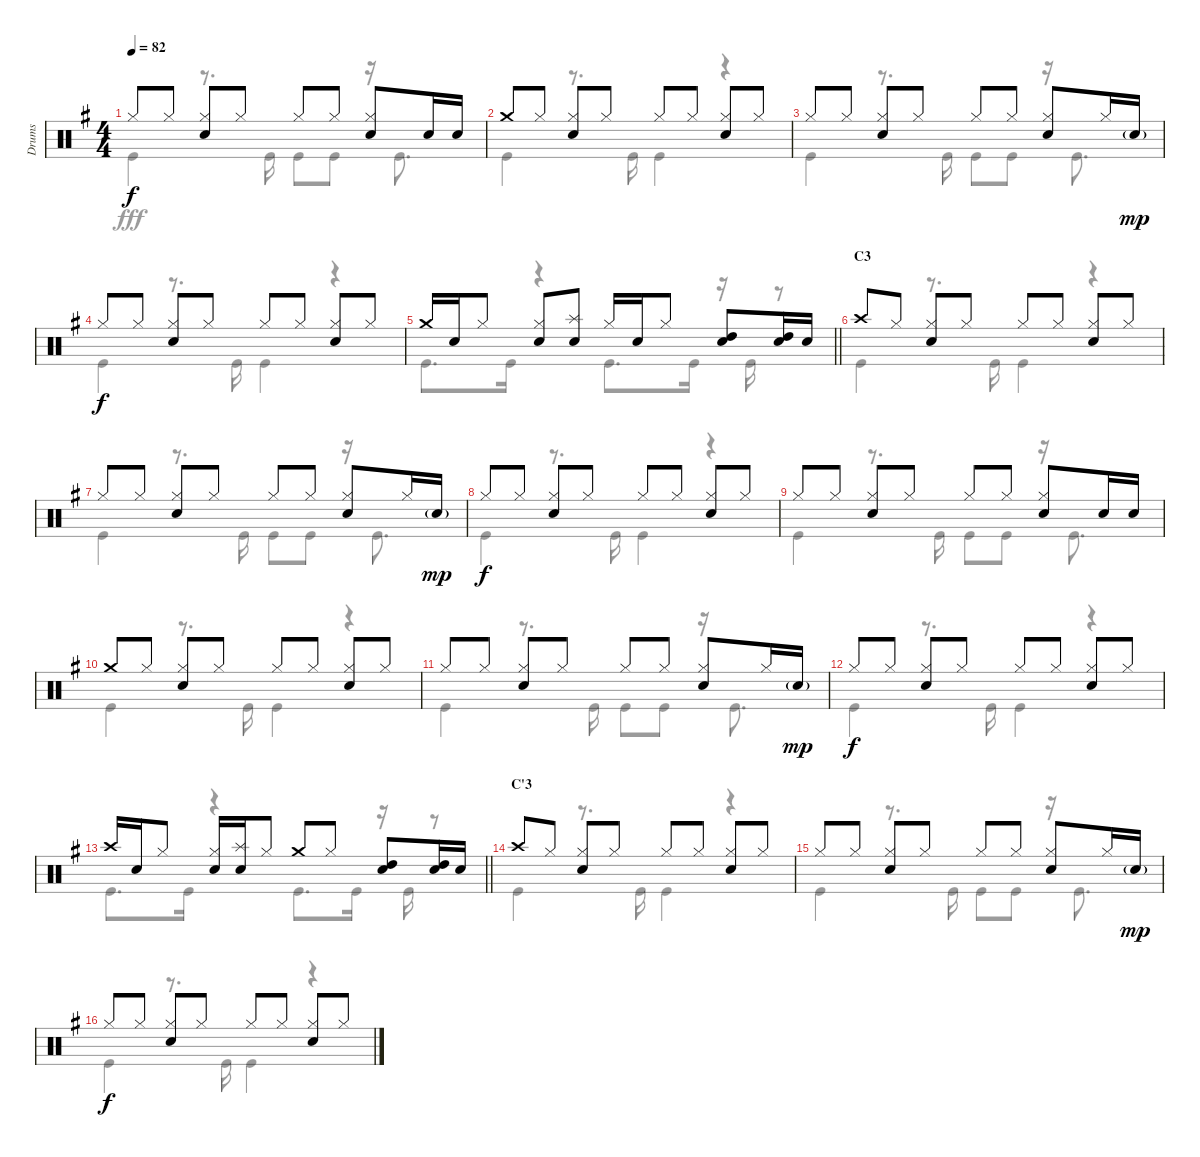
\track ("Drums" "Drums") {instrument percussion}
\staff {score}
\articulation defaults
\voice
\ts (4 4)
\tempo 82
\clef neutral
\ks g "Hi-Hat (closed)".8{dy f} "Hi-Hat (closed)".8
("Hi-Hat (closed)" "Snare (hit) 2").8 "Hi-Hat (closed)".8 "Hi-Hat (closed)".8 "Hi-Hat (closed)".8 ("Hi-Hat (closed)" "Snare (hit) 2").8 "Snare (hit) 2".16 "Snare (hit) 2".16 |
"Crash medium (hit)".8 "Hi-Hat (closed)".8 ("Hi-Hat (closed)" "Snare (hit) 2").8 "Hi-Hat (closed)".8 "Hi-Hat (closed)".8 "Hi-Hat (closed)".8 ("Hi-Hat (closed)" "Snare (hit) 2").8 "Hi-Hat (closed)".8 |
"Hi-Hat (closed)".8 "Hi-Hat (closed)".8 ("Hi-Hat (closed)" "Snare (hit) 2").8 "Hi-Hat (closed)".8 "Hi-Hat (closed)".8 "Hi-Hat (closed)".8 ("Hi-Hat (closed)" "Snare (hit) 2").8 "Hi-Hat (closed)".16 "Snare (hit) 2"{g}.16{dy mp} |
"Hi-Hat (closed)".8{dy f} "Hi-Hat (closed)".8 ("Hi-Hat (closed)" "Snare (hit) 2").8 "Hi-Hat (closed)".8 "Hi-Hat (closed)".8 "Hi-Hat (closed)".8 ("Hi-Hat (closed)" "Snare (hit) 2").8 "Hi-Hat (closed)".8 |
\barLineRight lightlight "Crash medium (hit)".16 "Snare (hit) 2".16 "Hi-Hat (closed)".8
("Hi-Hat (closed)" "Snare (hit) 2").8 ("Splash (hit)" "Snare (hit) 2").8 "Hi-Hat (closed)".16 "Snare (hit) 2".16 "Hi-Hat (closed)".8 ("High Tom (hit)" "Snare (hit) 2").8 ("High Tom (hit)" "Snare (hit) 2").16 "Snare (hit) 2".16 |
\section ("" "C3")
"Crash high (hit)".8 "Hi-Hat (closed)".8 ("Hi-Hat (closed)" "Snare (hit) 2").8 "Hi-Hat (closed)".8 "Hi-Hat (closed)".8 "Hi-Hat (closed)".8 ("Hi-Hat (closed)" "Snare (hit) 2").8 "Hi-Hat (closed)".8 |
"Hi-Hat (closed)".8 "Hi-Hat (closed)".8 ("Hi-Hat (closed)" "Snare (hit) 2").8 "Hi-Hat (closed)".8 "Hi-Hat (closed)".8 "Hi-Hat (closed)".8 ("Hi-Hat (closed)" "Snare (hit) 2").8 "Hi-Hat (closed)".16 "Snare (hit) 2"{g}.16{dy mp} |
"Hi-Hat (closed)".8{dy f} "Hi-Hat (closed)".8 ("Hi-Hat (closed)" "Snare (hit) 2").8 "Hi-Hat (closed)".8 "Hi-Hat (closed)".8 "Hi-Hat (closed)".8 ("Hi-Hat (closed)" "Snare (hit) 2").8 "Hi-Hat (closed)".8 |
"Hi-Hat (closed)".8 "Hi-Hat (closed)".8 ("Hi-Hat (closed)" "Snare (hit) 2").8 "Hi-Hat (closed)".8 "Hi-Hat (closed)".8 "Hi-Hat (closed)".8 ("Hi-Hat (closed)" "Snare (hit) 2").8 "Snare (hit) 2".16 "Snare (hit) 2".16 |
"Crash medium (hit)".8 "Hi-Hat (closed)".8 ("Hi-Hat (closed)" "Snare (hit) 2").8 "Hi-Hat (closed)".8 "Hi-Hat (closed)".8 "Hi-Hat (closed)".8 ("Hi-Hat (closed)" "Snare (hit) 2").8 "Hi-Hat (closed)".8 |
"Hi-Hat (closed)".8 "Hi-Hat (closed)".8 ("Hi-Hat (closed)" "Snare (hit) 2").8 "Hi-Hat (closed)".8 "Hi-Hat (closed)".8 "Hi-Hat (closed)".8 ("Hi-Hat (closed)" "Snare (hit) 2").8 "Hi-Hat (closed)".16 "Snare (hit) 2"{g}.16{dy mp} |
"Hi-Hat (closed)".8{dy f} "Hi-Hat (closed)".8 ("Hi-Hat (closed)" "Snare (hit) 2").8 "Hi-Hat (closed)".8 "Hi-Hat (closed)".8 "Hi-Hat (closed)".8 ("Hi-Hat (closed)" "Snare (hit) 2").8 "Hi-Hat (closed)".8 |
\barLineRight lightlight "Crash high (hit)".16 "Snare (hit) 2".16 "Hi-Hat (closed)".8
("Hi-Hat (closed)" "Snare (hit) 2").16 ("Splash (hit)" "Snare (hit) 2").16 "Hi-Hat (closed)".8 "Crash medium (hit)".8 "Hi-Hat (closed)".8 ("High Tom (hit)" "Snare (hit) 2").8 ("High Tom (hit)" "Snare (hit) 2").16 "Snare (hit) 2".16 |
\section ("" "C'3")
"Crash high (hit)".8 "Hi-Hat (closed)".8 ("Hi-Hat (closed)" "Snare (hit) 2").8 "Hi-Hat (closed)".8 "Hi-Hat (closed)".8 "Hi-Hat (closed)".8 ("Hi-Hat (closed)" "Snare (hit) 2").8 "Hi-Hat (closed)".8 |
"Hi-Hat (closed)".8 "Hi-Hat (closed)".8 ("Hi-Hat (closed)" "Snare (hit) 2").8 "Hi-Hat (closed)".8 "Hi-Hat (closed)".8 "Hi-Hat (closed)".8 ("Hi-Hat (closed)" "Snare (hit) 2").8 "Hi-Hat (closed)".16 "Snare (hit) 2"{g}.16{dy mp} |
"Hi-Hat (closed)".8{dy f} "Hi-Hat (closed)".8 ("Hi-Hat (closed)" "Snare (hit) 2").8 "Hi-Hat (closed)".8 "Hi-Hat (closed)".8 "Hi-Hat (closed)".8 ("Hi-Hat (closed)" "Snare (hit) 2").8 "Hi-Hat (closed)".8
\voice
\clef neutral
\ottava regular
\simile none
\ks g "Kick (hit)".4{dy fff}
r.8{d} "Kick (hit)".16 "Kick (hit)".8 "Kick (hit)".8 r.16 "Kick (hit)".8{d} |
"Kick (hit)".4 r.8{d} "Kick (hit)".16 "Kick (hit)".4 r.4 |
"Kick (hit)".4 r.8{d} "Kick (hit)".16 "Kick (hit)".8 "Kick (hit)".8 r.16 "Kick (hit)".8{d} |
"Kick (hit)".4 r.8{d} "Kick (hit)".16 "Kick (hit)".4 r.4 |
\barLineRight lightlight "Kick (hit)".8{d} "Kick (hit)".16
r.4 "Kick (hit)".8{d} "Kick (hit)".16 r.16 "Kick (hit)".16 r.8 |
"Kick (hit)".4 r.8{d} "Kick (hit)".16 "Kick (hit)".4 r.4 |
"Kick (hit)".4 r.8{d} "Kick (hit)".16 "Kick (hit)".8 "Kick (hit)".8 r.16 "Kick (hit)".8{d} |
"Kick (hit)".4 r.8{d} "Kick (hit)".16 "Kick (hit)".4 r.4 |
"Kick (hit)".4 r.8{d} "Kick (hit)".16 "Kick (hit)".8 "Kick (hit)".8 r.16 "Kick (hit)".8{d} |
"Kick (hit)".4 r.8{d} "Kick (hit)".16 "Kick (hit)".4 r.4 |
"Kick (hit)".4 r.8{d} "Kick (hit)".16 "Kick (hit)".8 "Kick (hit)".8 r.16 "Kick (hit)".8{d} |
"Kick (hit)".4 r.8{d} "Kick (hit)".16 "Kick (hit)".4 r.4 |
\barLineRight lightlight "Kick (hit)".8{d} "Kick (hit)".16
r.4 "Kick (hit)".8{d} "Kick (hit)".16 r.16 "Kick (hit)".16 r.8 |
"Kick (hit)".4 r.8{d} "Kick (hit)".16 "Kick (hit)".4 r.4 |
"Kick (hit)".4 r.8{d} "Kick (hit)".16 "Kick (hit)".8 "Kick (hit)".8 r.16 "Kick (hit)".8{d} |
"Kick (hit)".4 r.8{d} "Kick (hit)".16 "Kick (hit)".4 r.4
